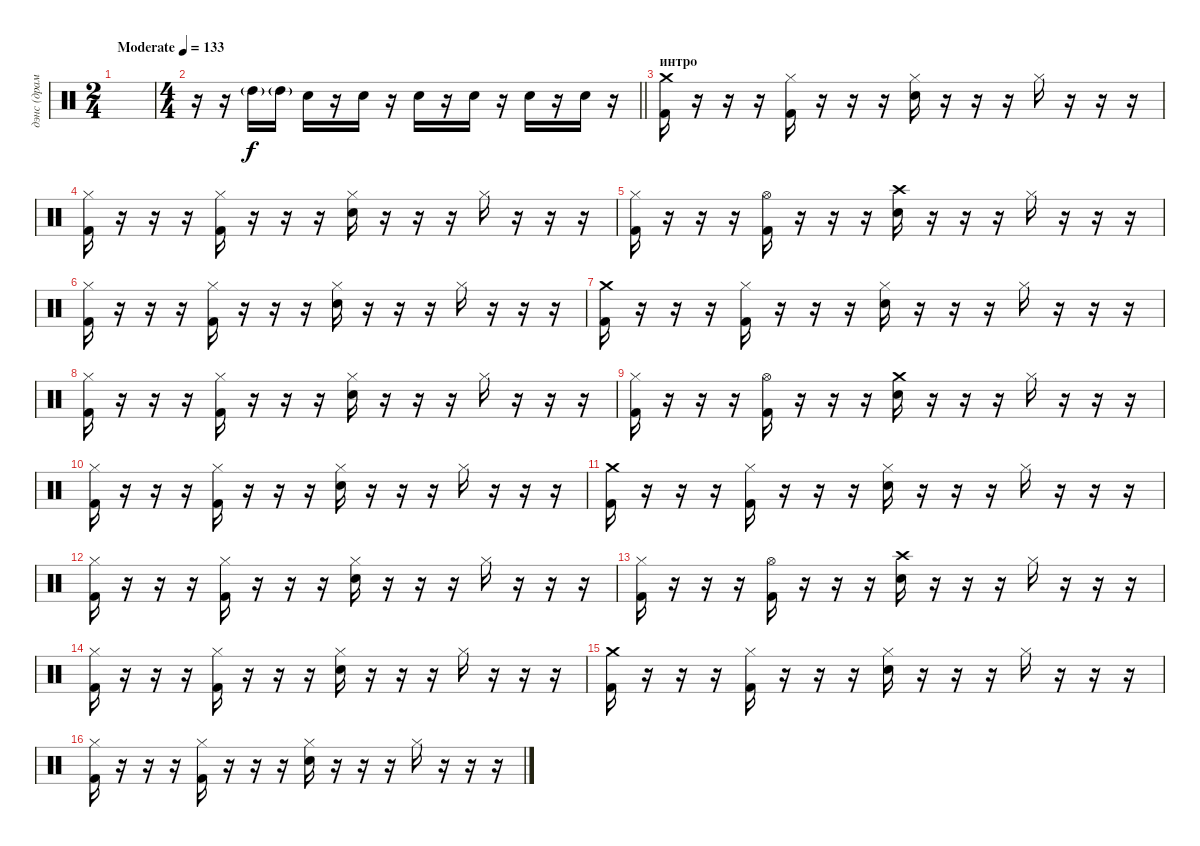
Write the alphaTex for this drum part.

\track ("дэнс (драммы)" "дэнс (драм") {instrument percussion}
\staff {score}
\articulation defaults
\ts (2 4)
\tempo (133 "Moderate")
\clef neutral
\ks c
|
\ts (4 4)
\barLineRight lightlight
r.16 r.16 "High Tom (hit)"{g}.16 "High Tom (hit)"{g}.16 "Snare (hit) 2".16{dy f} r.16 "Snare (hit) 2".16 r.16 "Snare (hit) 2".16 r.16 "Snare (hit) 2".16 r.16 "Snare (hit) 2".16 r.16 "Snare (hit) 2".16 r.16 |
\section ("" "интро")
("Kick (hit) 2" "Crash medium (hit)").16 r.16 r.16 r.16 ("Kick (hit) 2" "Hi-Hat (closed)").16 r.16 r.16 r.16 ("Snare (hit) 2" "Hi-Hat (closed)").16 r.16 r.16 r.16 "Hi-Hat (closed)".16 r.16 r.16 r.16 |
("Kick (hit) 2" "Hi-Hat (closed)").16 r.16 r.16 r.16 ("Kick (hit) 2" "Hi-Hat (closed)").16 r.16 r.16 r.16 ("Snare (hit) 2" "Hi-Hat (closed)").16 r.16 r.16 r.16 "Hi-Hat (closed)".16 r.16 r.16 r.16 |
("Kick (hit) 2" "Hi-Hat (closed)").16 r.16 r.16 r.16 ("Kick (hit) 2" "Hi-Hat (open)").16 r.16 r.16 r.16 ("Snare (hit) 2" "Crash high (hit)").16 r.16 r.16 r.16 "Hi-Hat (closed)".16 r.16 r.16 r.16 |
("Kick (hit) 2" "Hi-Hat (closed)").16 r.16 r.16 r.16 ("Kick (hit) 2" "Hi-Hat (closed)").16 r.16 r.16 r.16 ("Snare (hit) 2" "Hi-Hat (closed)").16 r.16 r.16 r.16 "Hi-Hat (closed)".16 r.16 r.16 r.16 |
("Kick (hit) 2" "Crash medium (hit)").16 r.16 r.16 r.16 ("Kick (hit) 2" "Hi-Hat (closed)").16 r.16 r.16 r.16 ("Snare (hit) 2" "Hi-Hat (closed)").16 r.16 r.16 r.16 "Hi-Hat (closed)".16 r.16 r.16 r.16 |
("Kick (hit) 2" "Hi-Hat (closed)").16 r.16 r.16 r.16 ("Kick (hit) 2" "Hi-Hat (closed)").16 r.16 r.16 r.16 ("Snare (hit) 2" "Hi-Hat (closed)").16 r.16 r.16 r.16 "Hi-Hat (closed)".16 r.16 r.16 r.16 |
("Kick (hit) 2" "Hi-Hat (closed)").16 r.16 r.16 r.16 ("Kick (hit) 2" "Hi-Hat (open)").16 r.16 r.16 r.16 ("Snare (hit) 2" "Crash medium (hit)").16 r.16 r.16 r.16 "Hi-Hat (closed)".16 r.16 r.16 r.16 |
("Kick (hit) 2" "Hi-Hat (closed)").16 r.16 r.16 r.16 ("Kick (hit) 2" "Hi-Hat (closed)").16 r.16 r.16 r.16 ("Snare (hit) 2" "Hi-Hat (closed)").16 r.16 r.16 r.16 "Hi-Hat (closed)".16 r.16 r.16 r.16 |
("Kick (hit) 2" "Crash medium (hit)").16 r.16 r.16 r.16 ("Kick (hit) 2" "Hi-Hat (closed)").16 r.16 r.16 r.16 ("Snare (hit) 2" "Hi-Hat (closed)").16 r.16 r.16 r.16 "Hi-Hat (closed)".16 r.16 r.16 r.16 |
("Kick (hit) 2" "Hi-Hat (closed)").16 r.16 r.16 r.16 ("Kick (hit) 2" "Hi-Hat (closed)").16 r.16 r.16 r.16 ("Snare (hit) 2" "Hi-Hat (closed)").16 r.16 r.16 r.16 "Hi-Hat (closed)".16 r.16 r.16 r.16 |
("Kick (hit) 2" "Hi-Hat (closed)").16 r.16 r.16 r.16 ("Kick (hit) 2" "Hi-Hat (open)").16 r.16 r.16 r.16 ("Snare (hit) 2" "Crash high (hit)").16 r.16 r.16 r.16 "Hi-Hat (closed)".16 r.16 r.16 r.16 |
("Kick (hit) 2" "Hi-Hat (closed)").16 r.16 r.16 r.16 ("Kick (hit) 2" "Hi-Hat (closed)").16 r.16 r.16 r.16 ("Snare (hit) 2" "Hi-Hat (closed)").16 r.16 r.16 r.16 "Hi-Hat (closed)".16 r.16 r.16 r.16 |
("Kick (hit) 2" "Crash medium (hit)").16 r.16 r.16 r.16 ("Kick (hit) 2" "Hi-Hat (closed)").16 r.16 r.16 r.16 ("Snare (hit) 2" "Hi-Hat (closed)").16 r.16 r.16 r.16 "Hi-Hat (closed)".16 r.16 r.16 r.16 |
("Kick (hit) 2" "Hi-Hat (closed)").16 r.16 r.16 r.16 ("Kick (hit) 2" "Hi-Hat (closed)").16 r.16 r.16 r.16 ("Snare (hit) 2" "Hi-Hat (closed)").16 r.16 r.16 r.16 "Hi-Hat (closed)".16 r.16 r.16 r.16
